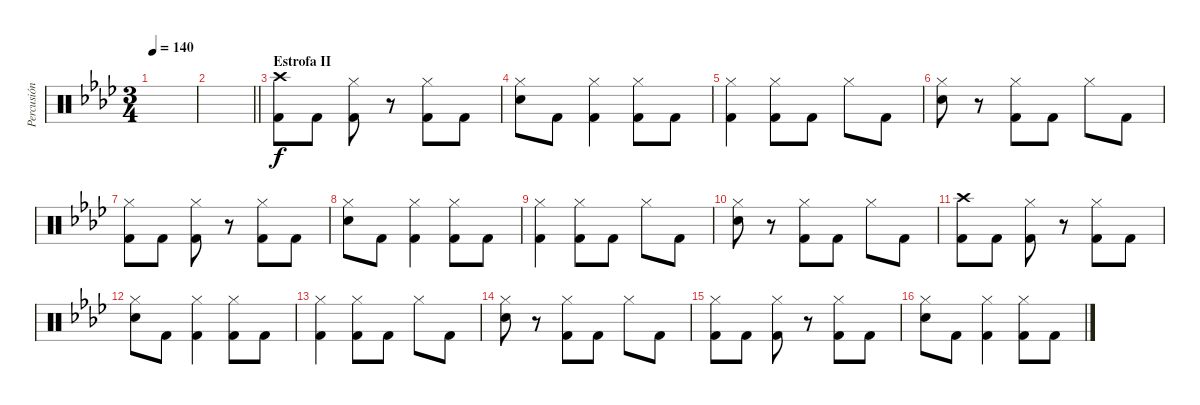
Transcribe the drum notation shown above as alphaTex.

\track ("Percusión" "Percusión") {instrument percussion}
\staff {score}
\articulation defaults
\ts (3 4)
\tempo 140
\clef neutral
\ks fminor
|
\barLineRight lightlight
|
\section ("" "Estrofa II")
("Crash high (hit)" "Kick (hit) 2").8 "Kick (hit) 2".8 ("Hi-Hat (closed)" "Kick (hit) 2").8 r.8 ("Hi-Hat (closed)" "Kick (hit) 2").8 "Kick (hit) 2".8 |
("Hi-Hat (closed)" "Snare (hit) 2").8 "Kick (hit) 2".8 ("Hi-Hat (closed)" "Kick (hit) 2").4 ("Hi-Hat (closed)" "Kick (hit) 2").8 "Kick (hit) 2".8 |
("Hi-Hat (closed)" "Kick (hit) 2").4 ("Hi-Hat (closed)" "Kick (hit) 2").8 "Kick (hit) 2".8 "Hi-Hat (closed)".8 "Kick (hit) 2".8 |
("Hi-Hat (closed)" "Snare (hit) 2").8 r.8 ("Hi-Hat (closed)" "Kick (hit) 2").8 "Kick (hit) 2".8 "Hi-Hat (closed)".8 "Kick (hit) 2".8 |
("Hi-Hat (closed)" "Kick (hit) 2").8 "Kick (hit) 2".8 ("Hi-Hat (closed)" "Kick (hit) 2").8 r.8 ("Hi-Hat (closed)" "Kick (hit) 2").8 "Kick (hit) 2".8 |
("Hi-Hat (closed)" "Snare (hit) 2").8 "Kick (hit) 2".8 ("Hi-Hat (closed)" "Kick (hit) 2").4 ("Hi-Hat (closed)" "Kick (hit) 2").8 "Kick (hit) 2".8 |
("Hi-Hat (closed)" "Kick (hit) 2").4 ("Hi-Hat (closed)" "Kick (hit) 2").8 "Kick (hit) 2".8 "Hi-Hat (closed)".8 "Kick (hit) 2".8 |
("Hi-Hat (closed)" "Snare (hit) 2").8 r.8 ("Hi-Hat (closed)" "Kick (hit) 2").8 "Kick (hit) 2".8 "Hi-Hat (closed)".8 "Kick (hit) 2".8 |
("Crash high (hit)" "Kick (hit) 2").8 "Kick (hit) 2".8 ("Hi-Hat (closed)" "Kick (hit) 2").8 r.8 ("Hi-Hat (closed)" "Kick (hit) 2").8 "Kick (hit) 2".8 |
("Hi-Hat (closed)" "Snare (hit) 2").8 "Kick (hit) 2".8 ("Hi-Hat (closed)" "Kick (hit) 2").4 ("Hi-Hat (closed)" "Kick (hit) 2").8 "Kick (hit) 2".8 |
("Hi-Hat (closed)" "Kick (hit) 2").4 ("Hi-Hat (closed)" "Kick (hit) 2").8 "Kick (hit) 2".8 "Hi-Hat (closed)".8 "Kick (hit) 2".8 |
("Hi-Hat (closed)" "Snare (hit) 2").8 r.8 ("Hi-Hat (closed)" "Kick (hit) 2").8 "Kick (hit) 2".8 "Hi-Hat (closed)".8 "Kick (hit) 2".8 |
("Hi-Hat (closed)" "Kick (hit) 2").8 "Kick (hit) 2".8 ("Hi-Hat (closed)" "Kick (hit) 2").8 r.8 ("Hi-Hat (closed)" "Kick (hit) 2").8 "Kick (hit) 2".8 |
("Hi-Hat (closed)" "Snare (hit) 2").8 "Kick (hit) 2".8 ("Hi-Hat (closed)" "Kick (hit) 2").4 ("Hi-Hat (closed)" "Kick (hit) 2").8 "Kick (hit) 2".8
